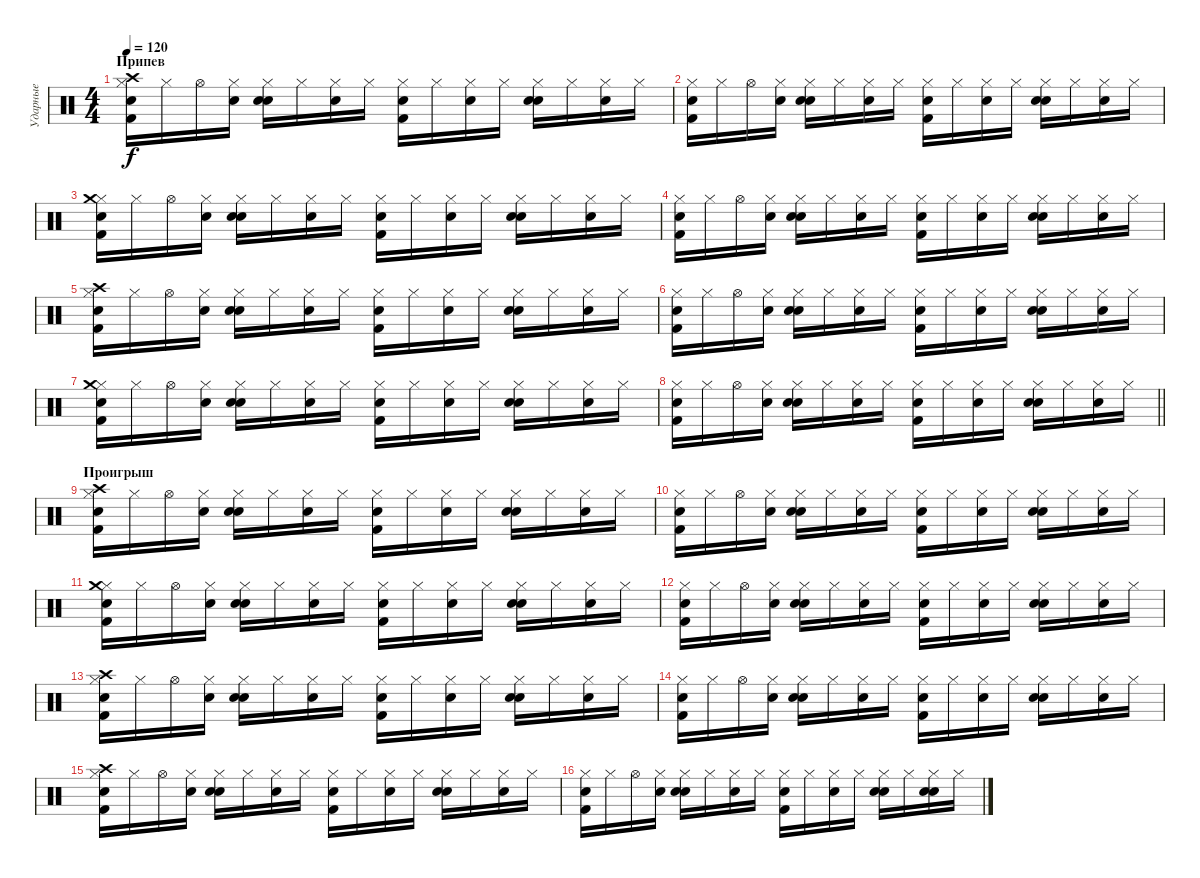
\track ("Ударные" "Ударные") {instrument percussion}
\staff {score}
\articulation defaults
\ts (4 4)
\section ("" "Припев")
\tempo 120
\clef neutral
\ks c
("Hi-Hat (closed)" "Snare (hit) 2" "Kick (hit) 2" "Crash high (hit)").16{dy f} "Hi-Hat (closed)".16 "Hi-Hat (open)".16 ("Hi-Hat (closed)" "Snare (hit) 2").16 ("Hi-Hat (closed)" "Snare (hit) 2" "Electric Snare (hit)").16 "Hi-Hat (closed)".16 ("Hi-Hat (closed)" "Snare (hit) 2").16 "Hi-Hat (closed)".16 ("Hi-Hat (closed)" "Snare (hit) 2" "Kick (hit) 2").16 "Hi-Hat (closed)".16 ("Hi-Hat (closed)" "Snare (hit) 2").16 "Hi-Hat (closed)".16 ("Hi-Hat (closed)" "Snare (hit) 2" "Electric Snare (hit)").16 "Hi-Hat (closed)".16 ("Hi-Hat (closed)" "Snare (hit) 2").16 "Hi-Hat (closed)".16 |
("Hi-Hat (closed)" "Snare (hit) 2" "Kick (hit) 2").16 "Hi-Hat (closed)".16 "Hi-Hat (open)".16 ("Hi-Hat (closed)" "Snare (hit) 2").16 ("Hi-Hat (closed)" "Snare (hit) 2" "Electric Snare (hit)").16 "Hi-Hat (closed)".16 ("Hi-Hat (closed)" "Snare (hit) 2").16 "Hi-Hat (closed)".16 ("Hi-Hat (closed)" "Snare (hit) 2" "Kick (hit) 2").16 "Hi-Hat (closed)".16 ("Hi-Hat (closed)" "Snare (hit) 2").16 "Hi-Hat (closed)".16 ("Hi-Hat (closed)" "Snare (hit) 2" "Electric Snare (hit)").16 "Hi-Hat (closed)".16 ("Hi-Hat (closed)" "Snare (hit) 2").16 "Hi-Hat (closed)".16 |
("Hi-Hat (closed)" "Snare (hit) 2" "Kick (hit) 2" "Crash medium (hit)").16 "Hi-Hat (closed)".16 "Hi-Hat (open)".16 ("Hi-Hat (closed)" "Snare (hit) 2").16 ("Hi-Hat (closed)" "Snare (hit) 2" "Electric Snare (hit)").16 "Hi-Hat (closed)".16 ("Hi-Hat (closed)" "Snare (hit) 2").16 "Hi-Hat (closed)".16 ("Hi-Hat (closed)" "Snare (hit) 2" "Kick (hit) 2").16 "Hi-Hat (closed)".16 ("Hi-Hat (closed)" "Snare (hit) 2").16 "Hi-Hat (closed)".16 ("Hi-Hat (closed)" "Snare (hit) 2" "Electric Snare (hit)").16 "Hi-Hat (closed)".16 ("Hi-Hat (closed)" "Snare (hit) 2").16 "Hi-Hat (closed)".16 |
("Hi-Hat (closed)" "Snare (hit) 2" "Kick (hit) 2").16 "Hi-Hat (closed)".16 "Hi-Hat (open)".16 ("Hi-Hat (closed)" "Snare (hit) 2").16 ("Hi-Hat (closed)" "Snare (hit) 2" "Electric Snare (hit)").16 "Hi-Hat (closed)".16 ("Hi-Hat (closed)" "Snare (hit) 2").16 "Hi-Hat (closed)".16 ("Hi-Hat (closed)" "Snare (hit) 2" "Kick (hit) 2").16 "Hi-Hat (closed)".16 ("Hi-Hat (closed)" "Snare (hit) 2").16 "Hi-Hat (closed)".16 ("Hi-Hat (closed)" "Snare (hit) 2" "Electric Snare (hit)").16 "Hi-Hat (closed)".16 ("Hi-Hat (closed)" "Snare (hit) 2").16 "Hi-Hat (closed)".16 |
("Hi-Hat (closed)" "Snare (hit) 2" "Kick (hit) 2" "Crash high (hit)").16 "Hi-Hat (closed)".16 "Hi-Hat (open)".16 ("Hi-Hat (closed)" "Snare (hit) 2").16 ("Hi-Hat (closed)" "Snare (hit) 2" "Electric Snare (hit)").16 "Hi-Hat (closed)".16 ("Hi-Hat (closed)" "Snare (hit) 2").16 "Hi-Hat (closed)".16 ("Hi-Hat (closed)" "Snare (hit) 2" "Kick (hit) 2").16 "Hi-Hat (closed)".16 ("Hi-Hat (closed)" "Snare (hit) 2").16 "Hi-Hat (closed)".16 ("Hi-Hat (closed)" "Snare (hit) 2" "Electric Snare (hit)").16 "Hi-Hat (closed)".16 ("Hi-Hat (closed)" "Snare (hit) 2").16 "Hi-Hat (closed)".16 |
("Hi-Hat (closed)" "Snare (hit) 2" "Kick (hit) 2").16 "Hi-Hat (closed)".16 "Hi-Hat (open)".16 ("Hi-Hat (closed)" "Snare (hit) 2").16 ("Hi-Hat (closed)" "Snare (hit) 2" "Electric Snare (hit)").16 "Hi-Hat (closed)".16 ("Hi-Hat (closed)" "Snare (hit) 2").16 "Hi-Hat (closed)".16 ("Hi-Hat (closed)" "Snare (hit) 2" "Kick (hit) 2").16 "Hi-Hat (closed)".16 ("Hi-Hat (closed)" "Snare (hit) 2").16 "Hi-Hat (closed)".16 ("Hi-Hat (closed)" "Snare (hit) 2" "Electric Snare (hit)").16 "Hi-Hat (closed)".16 ("Hi-Hat (closed)" "Snare (hit) 2").16 "Hi-Hat (closed)".16 |
("Hi-Hat (closed)" "Snare (hit) 2" "Kick (hit) 2" "Crash medium (hit)").16 "Hi-Hat (closed)".16 "Hi-Hat (open)".16 ("Hi-Hat (closed)" "Snare (hit) 2").16 ("Hi-Hat (closed)" "Snare (hit) 2" "Electric Snare (hit)").16 "Hi-Hat (closed)".16 ("Hi-Hat (closed)" "Snare (hit) 2").16 "Hi-Hat (closed)".16 ("Hi-Hat (closed)" "Snare (hit) 2" "Kick (hit) 2").16 "Hi-Hat (closed)".16 ("Hi-Hat (closed)" "Snare (hit) 2").16 "Hi-Hat (closed)".16 ("Hi-Hat (closed)" "Snare (hit) 2" "Electric Snare (hit)").16 "Hi-Hat (closed)".16 ("Hi-Hat (closed)" "Snare (hit) 2").16 "Hi-Hat (closed)".16 |
\barLineRight lightlight
("Hi-Hat (closed)" "Snare (hit) 2" "Kick (hit) 2").16 "Hi-Hat (closed)".16 "Hi-Hat (open)".16 ("Hi-Hat (closed)" "Snare (hit) 2").16 ("Hi-Hat (closed)" "Snare (hit) 2" "Electric Snare (hit)").16 "Hi-Hat (closed)".16 ("Hi-Hat (closed)" "Snare (hit) 2").16 "Hi-Hat (closed)".16 ("Hi-Hat (closed)" "Snare (hit) 2" "Kick (hit) 2").16 "Hi-Hat (closed)".16 ("Hi-Hat (closed)" "Snare (hit) 2").16 "Hi-Hat (closed)".16 ("Hi-Hat (closed)" "Snare (hit) 2" "Electric Snare (hit)").16 "Hi-Hat (closed)".16 ("Hi-Hat (closed)" "Snare (hit) 2").16 "Hi-Hat (closed)".16 |
\section ("" "Проигрыш")
("Hi-Hat (closed)" "Snare (hit) 2" "Kick (hit) 2" "Crash high (hit)").16 "Hi-Hat (closed)".16 "Hi-Hat (open)".16 ("Hi-Hat (closed)" "Snare (hit) 2").16 ("Hi-Hat (closed)" "Snare (hit) 2" "Electric Snare (hit)").16 "Hi-Hat (closed)".16 ("Hi-Hat (closed)" "Snare (hit) 2").16 "Hi-Hat (closed)".16 ("Hi-Hat (closed)" "Snare (hit) 2" "Kick (hit) 2").16 "Hi-Hat (closed)".16 ("Hi-Hat (closed)" "Snare (hit) 2").16 "Hi-Hat (closed)".16 ("Hi-Hat (closed)" "Snare (hit) 2" "Electric Snare (hit)").16 "Hi-Hat (closed)".16 ("Hi-Hat (closed)" "Snare (hit) 2").16 "Hi-Hat (closed)".16 |
("Hi-Hat (closed)" "Snare (hit) 2" "Kick (hit) 2").16 "Hi-Hat (closed)".16 "Hi-Hat (open)".16 ("Hi-Hat (closed)" "Snare (hit) 2").16 ("Hi-Hat (closed)" "Snare (hit) 2" "Electric Snare (hit)").16 "Hi-Hat (closed)".16 ("Hi-Hat (closed)" "Snare (hit) 2").16 "Hi-Hat (closed)".16 ("Hi-Hat (closed)" "Snare (hit) 2" "Kick (hit) 2").16 "Hi-Hat (closed)".16 ("Hi-Hat (closed)" "Snare (hit) 2").16 "Hi-Hat (closed)".16 ("Hi-Hat (closed)" "Snare (hit) 2" "Electric Snare (hit)").16 "Hi-Hat (closed)".16 ("Hi-Hat (closed)" "Snare (hit) 2").16 "Hi-Hat (closed)".16 |
("Hi-Hat (closed)" "Snare (hit) 2" "Kick (hit) 2" "Crash medium (hit)").16 "Hi-Hat (closed)".16 "Hi-Hat (open)".16 ("Hi-Hat (closed)" "Snare (hit) 2").16 ("Hi-Hat (closed)" "Snare (hit) 2" "Electric Snare (hit)").16 "Hi-Hat (closed)".16 ("Hi-Hat (closed)" "Snare (hit) 2").16 "Hi-Hat (closed)".16 ("Hi-Hat (closed)" "Snare (hit) 2" "Kick (hit) 2").16 "Hi-Hat (closed)".16 ("Hi-Hat (closed)" "Snare (hit) 2").16 "Hi-Hat (closed)".16 ("Hi-Hat (closed)" "Snare (hit) 2" "Electric Snare (hit)").16 "Hi-Hat (closed)".16 ("Hi-Hat (closed)" "Snare (hit) 2").16 "Hi-Hat (closed)".16 |
("Hi-Hat (closed)" "Snare (hit) 2" "Kick (hit) 2").16 "Hi-Hat (closed)".16 "Hi-Hat (open)".16 ("Hi-Hat (closed)" "Snare (hit) 2").16 ("Hi-Hat (closed)" "Snare (hit) 2" "Electric Snare (hit)").16 "Hi-Hat (closed)".16 ("Hi-Hat (closed)" "Snare (hit) 2").16 "Hi-Hat (closed)".16 ("Hi-Hat (closed)" "Snare (hit) 2" "Kick (hit) 2").16 "Hi-Hat (closed)".16 ("Hi-Hat (closed)" "Snare (hit) 2").16 "Hi-Hat (closed)".16 ("Hi-Hat (closed)" "Snare (hit) 2" "Electric Snare (hit)").16 "Hi-Hat (closed)".16 ("Hi-Hat (closed)" "Snare (hit) 2").16 "Hi-Hat (closed)".16 |
("Hi-Hat (closed)" "Snare (hit) 2" "Kick (hit) 2" "Crash high (hit)").16 "Hi-Hat (closed)".16 "Hi-Hat (open)".16 ("Hi-Hat (closed)" "Snare (hit) 2").16 ("Hi-Hat (closed)" "Snare (hit) 2" "Electric Snare (hit)").16 "Hi-Hat (closed)".16 ("Hi-Hat (closed)" "Snare (hit) 2").16 "Hi-Hat (closed)".16 ("Hi-Hat (closed)" "Snare (hit) 2" "Kick (hit) 2").16 "Hi-Hat (closed)".16 ("Hi-Hat (closed)" "Snare (hit) 2").16 "Hi-Hat (closed)".16 ("Hi-Hat (closed)" "Snare (hit) 2" "Electric Snare (hit)").16 "Hi-Hat (closed)".16 ("Hi-Hat (closed)" "Snare (hit) 2").16 "Hi-Hat (closed)".16 |
("Hi-Hat (closed)" "Snare (hit) 2" "Kick (hit) 2").16 "Hi-Hat (closed)".16 "Hi-Hat (open)".16 ("Hi-Hat (closed)" "Snare (hit) 2").16 ("Hi-Hat (closed)" "Snare (hit) 2" "Electric Snare (hit)").16 "Hi-Hat (closed)".16 ("Hi-Hat (closed)" "Snare (hit) 2").16 "Hi-Hat (closed)".16 ("Hi-Hat (closed)" "Snare (hit) 2" "Kick (hit) 2").16 "Hi-Hat (closed)".16 ("Hi-Hat (closed)" "Snare (hit) 2").16 "Hi-Hat (closed)".16 ("Hi-Hat (closed)" "Snare (hit) 2" "Electric Snare (hit)").16 "Hi-Hat (closed)".16 ("Hi-Hat (closed)" "Snare (hit) 2").16 "Hi-Hat (closed)".16 |
("Hi-Hat (closed)" "Snare (hit) 2" "Kick (hit) 2" "Crash high (hit)").16 "Hi-Hat (closed)".16 "Hi-Hat (open)".16 ("Hi-Hat (closed)" "Snare (hit) 2").16 ("Hi-Hat (closed)" "Snare (hit) 2" "Electric Snare (hit)").16 "Hi-Hat (closed)".16 ("Hi-Hat (closed)" "Snare (hit) 2").16 "Hi-Hat (closed)".16 ("Hi-Hat (closed)" "Snare (hit) 2" "Kick (hit) 2").16 "Hi-Hat (closed)".16 ("Hi-Hat (closed)" "Snare (hit) 2").16 "Hi-Hat (closed)".16 ("Hi-Hat (closed)" "Snare (hit) 2" "Electric Snare (hit)").16 "Hi-Hat (closed)".16 ("Hi-Hat (closed)" "Snare (hit) 2").16 "Hi-Hat (closed)".16 |
("Hi-Hat (closed)" "Snare (hit) 2" "Kick (hit) 2").16 "Hi-Hat (closed)".16 "Hi-Hat (open)".16 ("Hi-Hat (closed)" "Snare (hit) 2").16 ("Hi-Hat (closed)" "Snare (hit) 2" "Electric Snare (hit)").16 "Hi-Hat (closed)".16 ("Hi-Hat (closed)" "Snare (hit) 2").16 "Hi-Hat (closed)".16 ("Hi-Hat (closed)" "Snare (hit) 2" "Kick (hit) 2").16 "Hi-Hat (closed)".16 ("Hi-Hat (closed)" "Snare (hit) 2").16 "Hi-Hat (closed)".16 ("Hi-Hat (closed)" "Snare (hit) 2" "Electric Snare (hit)").16 "Hi-Hat (closed)".16 ("Hi-Hat (closed)" "Snare (hit) 2" "Electric Snare (hit)").16 "Hi-Hat (closed)".16
